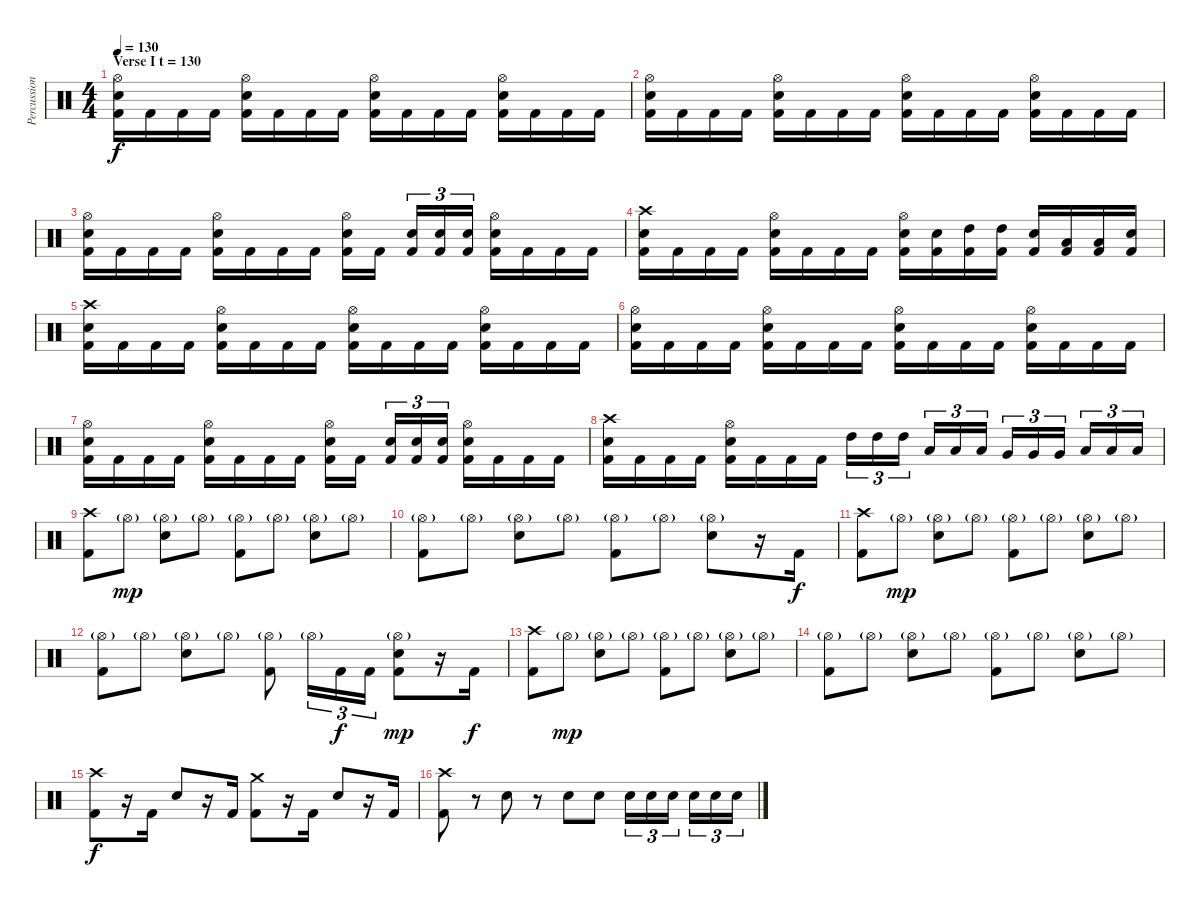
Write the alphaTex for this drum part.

\track ("Percussion" "Percussion") {instrument percussion}
\staff {score}
\articulation defaults
\ts (4 4)
\section ("" "Verse I t = 130")
\tempo 130
\clef neutral
\ks c
("Hi-Hat (open)" "Electric Snare (hit)" "Kick (hit) 2").16{dy f} "Kick (hit) 2".16 "Kick (hit) 2".16 "Kick (hit) 2".16 ("Hi-Hat (open)" "Electric Snare (hit)" "Kick (hit) 2").16 "Kick (hit) 2".16 "Kick (hit) 2".16 "Kick (hit) 2".16 ("Hi-Hat (open)" "Electric Snare (hit)" "Kick (hit) 2").16 "Kick (hit) 2".16 "Kick (hit) 2".16 "Kick (hit) 2".16 ("Hi-Hat (open)" "Electric Snare (hit)" "Kick (hit) 2").16 "Kick (hit) 2".16 "Kick (hit) 2".16 "Kick (hit) 2".16 |
("Hi-Hat (open)" "Electric Snare (hit)" "Kick (hit) 2").16 "Kick (hit) 2".16 "Kick (hit) 2".16 "Kick (hit) 2".16 ("Hi-Hat (open)" "Electric Snare (hit)" "Kick (hit) 2").16 "Kick (hit) 2".16 "Kick (hit) 2".16 "Kick (hit) 2".16 ("Hi-Hat (open)" "Electric Snare (hit)" "Kick (hit) 2").16 "Kick (hit) 2".16 "Kick (hit) 2".16 "Kick (hit) 2".16 ("Hi-Hat (open)" "Electric Snare (hit)" "Kick (hit) 2").16 "Kick (hit) 2".16 "Kick (hit) 2".16 "Kick (hit) 2".16 |
("Hi-Hat (open)" "Electric Snare (hit)" "Kick (hit) 2").16 "Kick (hit) 2".16 "Kick (hit) 2".16 "Kick (hit) 2".16 ("Hi-Hat (open)" "Electric Snare (hit)" "Kick (hit) 2").16 "Kick (hit) 2".16 "Kick (hit) 2".16 "Kick (hit) 2".16 ("Hi-Hat (open)" "Electric Snare (hit)" "Kick (hit) 2").16 "Kick (hit) 2".16 ("Electric Snare (hit)" "Kick (hit) 2").16{tu (3 2)} ("Electric Snare (hit)" "Kick (hit) 2").16{tu (3 2)} ("Electric Snare (hit)" "Kick (hit) 2").16{tu (3 2)} ("Hi-Hat (open)" "Electric Snare (hit)" "Kick (hit) 2").16 "Kick (hit) 2".16 "Kick (hit) 2".16 "Kick (hit) 2".16 |
("Crash high (hit)" "Electric Snare (hit)" "Kick (hit) 2").16 "Kick (hit) 2".16 "Kick (hit) 2".16 "Kick (hit) 2".16 ("Hi-Hat (open)" "Electric Snare (hit)" "Kick (hit) 2").16 "Kick (hit) 2".16 "Kick (hit) 2".16 "Kick (hit) 2".16 ("Hi-Hat (open)" "Electric Snare (hit)" "Kick (hit) 2").16 ("Electric Snare (hit)" "Kick (hit) 2").16 ("High Tom (hit)" "Kick (hit) 2").16 ("High Tom (hit)" "Kick (hit) 2").16 ("Electric Snare (hit)" "Kick (hit) 2").16 ("Low Tom (hit)" "Kick (hit) 2").16 ("Low Tom (hit)" "Kick (hit) 2").16 ("Electric Snare (hit)" "Kick (hit) 2").16 |
("Crash high (hit)" "Electric Snare (hit)" "Kick (hit) 2").16 "Kick (hit) 2".16 "Kick (hit) 2".16 "Kick (hit) 2".16 ("Hi-Hat (open)" "Electric Snare (hit)" "Kick (hit) 2").16 "Kick (hit) 2".16 "Kick (hit) 2".16 "Kick (hit) 2".16 ("Hi-Hat (open)" "Electric Snare (hit)" "Kick (hit) 2").16 "Kick (hit) 2".16 "Kick (hit) 2".16 "Kick (hit) 2".16 ("Hi-Hat (open)" "Electric Snare (hit)" "Kick (hit) 2").16 "Kick (hit) 2".16 "Kick (hit) 2".16 "Kick (hit) 2".16 |
("Hi-Hat (open)" "Electric Snare (hit)" "Kick (hit) 2").16 "Kick (hit) 2".16 "Kick (hit) 2".16 "Kick (hit) 2".16 ("Hi-Hat (open)" "Electric Snare (hit)" "Kick (hit) 2").16 "Kick (hit) 2".16 "Kick (hit) 2".16 "Kick (hit) 2".16 ("Hi-Hat (open)" "Electric Snare (hit)" "Kick (hit) 2").16 "Kick (hit) 2".16 "Kick (hit) 2".16 "Kick (hit) 2".16 ("Hi-Hat (open)" "Electric Snare (hit)" "Kick (hit) 2").16 "Kick (hit) 2".16 "Kick (hit) 2".16 "Kick (hit) 2".16 |
("Hi-Hat (open)" "Electric Snare (hit)" "Kick (hit) 2").16 "Kick (hit) 2".16 "Kick (hit) 2".16 "Kick (hit) 2".16 ("Hi-Hat (open)" "Electric Snare (hit)" "Kick (hit) 2").16 "Kick (hit) 2".16 "Kick (hit) 2".16 "Kick (hit) 2".16 ("Hi-Hat (open)" "Electric Snare (hit)" "Kick (hit) 2").16 "Kick (hit) 2".16 ("Electric Snare (hit)" "Kick (hit) 2").16{tu (3 2)} ("Electric Snare (hit)" "Kick (hit) 2").16{tu (3 2)} ("Electric Snare (hit)" "Kick (hit) 2").16{tu (3 2)} ("Hi-Hat (open)" "Electric Snare (hit)" "Kick (hit) 2").16 "Kick (hit) 2".16 "Kick (hit) 2".16 "Kick (hit) 2".16 |
("Crash high (hit)" "Electric Snare (hit)" "Kick (hit) 2").16 "Kick (hit) 2".16 "Kick (hit) 2".16 "Kick (hit) 2".16 ("Hi-Hat (open)" "Electric Snare (hit)" "Kick (hit) 2").16 "Kick (hit) 2".16 "Kick (hit) 2".16 "Kick (hit) 2".16 "High Tom (hit)".16{tu (3 2)} "High Tom (hit)".16{tu (3 2)} "High Tom (hit)".16{tu (3 2)} "Low Tom (hit)".16{tu (3 2)} "Low Tom (hit)".16{tu (3 2)} "Low Tom (hit)".16{tu (3 2)} "Very Low Tom (hit)".16{tu (3 2)} "Very Low Tom (hit)".16{tu (3 2)} "Very Low Tom (hit)".16{tu (3 2)} "Low Floor Tom (hit)".16{tu (3 2)} "Low Floor Tom (hit)".16{tu (3 2)} "Low Floor Tom (hit)".16{tu (3 2)} |
("Crash high (hit)" "Kick (hit) 2").8 "Hi-Hat (open)"{g}.8{dy mp} ("Hi-Hat (open)"{g} "Electric Snare (hit)").8 "Hi-Hat (open)"{g}.8 ("Hi-Hat (open)"{g} "Kick (hit) 2").8 "Hi-Hat (open)"{g}.8 ("Hi-Hat (open)"{g} "Electric Snare (hit)").8 "Hi-Hat (open)"{g}.8 |
("Hi-Hat (open)"{g} "Kick (hit) 2").8 "Hi-Hat (open)"{g}.8 ("Hi-Hat (open)"{g} "Electric Snare (hit)").8 "Hi-Hat (open)"{g}.8 ("Hi-Hat (open)"{g} "Kick (hit) 2").8 "Hi-Hat (open)"{g}.8 ("Hi-Hat (open)"{g} "Electric Snare (hit)").8 r.16 "Kick (hit) 2".16{dy f} |
("Crash high (hit)" "Kick (hit) 2").8 "Hi-Hat (open)"{g}.8{dy mp} ("Hi-Hat (open)"{g} "Electric Snare (hit)").8 "Hi-Hat (open)"{g}.8 ("Hi-Hat (open)"{g} "Kick (hit) 2").8 "Hi-Hat (open)"{g}.8 ("Hi-Hat (open)"{g} "Electric Snare (hit)").8 "Hi-Hat (open)"{g}.8 |
("Hi-Hat (open)"{g} "Kick (hit) 2").8 "Hi-Hat (open)"{g}.8 ("Hi-Hat (open)"{g} "Electric Snare (hit)").8 "Hi-Hat (open)"{g}.8 ("Hi-Hat (open)"{g} "Kick (hit) 2").8 "Hi-Hat (open)"{g}.16{tu (3 2)} "Kick (hit) 2".16{tu (3 2) dy f} "Kick (hit) 2".16{tu (3 2)} ("Hi-Hat (open)"{g} "Electric Snare (hit)" "Kick (hit) 2").8{dy mp} r.16 "Kick (hit) 2".16{dy f} |
("Crash high (hit)" "Kick (hit) 2").8 "Hi-Hat (open)"{g}.8{dy mp} ("Hi-Hat (open)"{g} "Electric Snare (hit)").8 "Hi-Hat (open)"{g}.8 ("Hi-Hat (open)"{g} "Kick (hit) 2").8 "Hi-Hat (open)"{g}.8 ("Hi-Hat (open)"{g} "Electric Snare (hit)").8 "Hi-Hat (open)"{g}.8 |
("Hi-Hat (open)"{g} "Kick (hit) 2").8 "Hi-Hat (open)"{g}.8 ("Hi-Hat (open)"{g} "Electric Snare (hit)").8 "Hi-Hat (open)"{g}.8 ("Hi-Hat (open)"{g} "Kick (hit) 2").8 "Hi-Hat (open)"{g}.8 ("Hi-Hat (open)"{g} "Electric Snare (hit)").8 "Hi-Hat (open)"{g}.8 |
("Crash high (hit)" "Kick (hit) 2").8{dy f} r.16 "Kick (hit) 2".16 "Electric Snare (hit)".8 r.16 "Kick (hit) 2".16 ("Crash medium (hit)" "Kick (hit) 2").8 r.16 "Kick (hit) 2".16 "Electric Snare (hit)".8 r.16 "Kick (hit) 2".16 |
("Crash high (hit)" "Kick (hit) 2").8 r.8 "Electric Snare (hit)".8 r.8 "Electric Snare (hit)".8 "Electric Snare (hit)".8 "Electric Snare (hit)".16{tu (3 2)} "Electric Snare (hit)".16{tu (3 2)} "Electric Snare (hit)".16{tu (3 2)} "Electric Snare (hit)".16{tu (3 2)} "Electric Snare (hit)".16{tu (3 2)} "Electric Snare (hit)".16{tu (3 2)}
